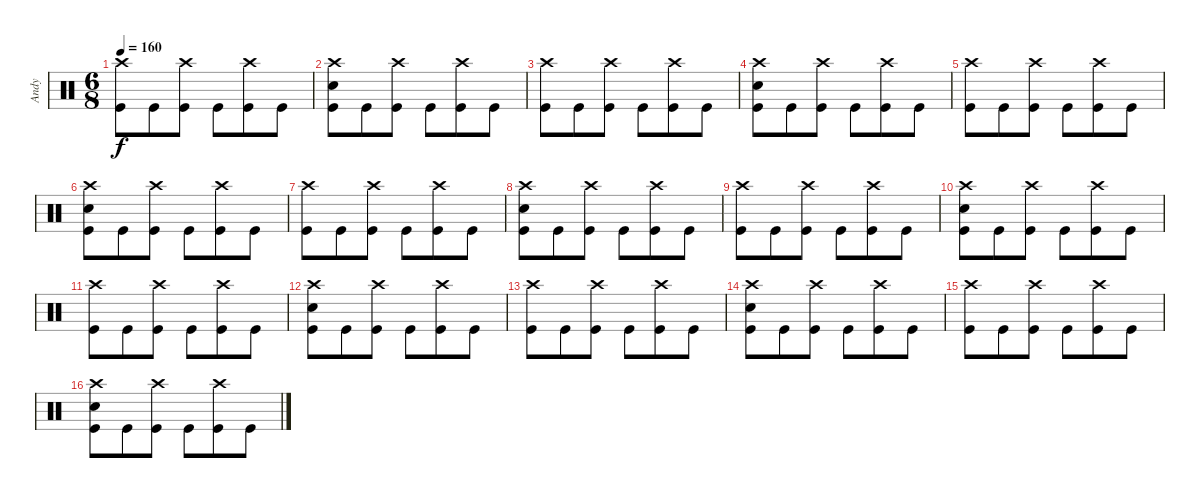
\track ("Andy" "Andy") {instrument percussion}
\staff {score}
\articulation defaults
\ts (6 8)
\tempo 160
\clef neutral
\ks c
("Kick (hit)" "Crash high (hit)").8{dy f} "Kick (hit)".8 ("Kick (hit)" "Crash high (hit)").8 "Kick (hit)".8 ("Kick (hit)" "Crash high (hit)").8 "Kick (hit)".8 |
("Kick (hit)" "Crash high (hit)" "Snare (hit) 2").8 "Kick (hit)".8 ("Kick (hit)" "Crash high (hit)").8 "Kick (hit)".8 ("Kick (hit)" "Crash high (hit)").8 "Kick (hit)".8 |
("Kick (hit)" "Crash high (hit)").8 "Kick (hit)".8 ("Kick (hit)" "Crash high (hit)").8 "Kick (hit)".8 ("Kick (hit)" "Crash high (hit)").8 "Kick (hit)".8 |
("Kick (hit)" "Crash high (hit)" "Snare (hit) 2").8 "Kick (hit)".8 ("Kick (hit)" "Crash high (hit)").8 "Kick (hit)".8 ("Kick (hit)" "Crash high (hit)").8 "Kick (hit)".8 |
("Kick (hit)" "Crash high (hit)").8 "Kick (hit)".8 ("Kick (hit)" "Crash high (hit)").8 "Kick (hit)".8 ("Kick (hit)" "Crash high (hit)").8 "Kick (hit)".8 |
("Kick (hit)" "Crash high (hit)" "Snare (hit) 2").8 "Kick (hit)".8 ("Kick (hit)" "Crash high (hit)").8 "Kick (hit)".8 ("Kick (hit)" "Crash high (hit)").8 "Kick (hit)".8 |
("Kick (hit)" "Crash high (hit)").8 "Kick (hit)".8 ("Kick (hit)" "Crash high (hit)").8 "Kick (hit)".8 ("Kick (hit)" "Crash high (hit)").8 "Kick (hit)".8 |
("Kick (hit)" "Crash high (hit)" "Snare (hit) 2").8 "Kick (hit)".8 ("Kick (hit)" "Crash high (hit)").8 "Kick (hit)".8 ("Kick (hit)" "Crash high (hit)").8 "Kick (hit)".8 |
("Kick (hit)" "Crash high (hit)").8 "Kick (hit)".8 ("Kick (hit)" "Crash high (hit)").8 "Kick (hit)".8 ("Kick (hit)" "Crash high (hit)").8 "Kick (hit)".8 |
("Kick (hit)" "Crash high (hit)" "Snare (hit) 2").8 "Kick (hit)".8 ("Kick (hit)" "Crash high (hit)").8 "Kick (hit)".8 ("Kick (hit)" "Crash high (hit)").8 "Kick (hit)".8 |
("Kick (hit)" "Crash high (hit)").8 "Kick (hit)".8 ("Kick (hit)" "Crash high (hit)").8 "Kick (hit)".8 ("Kick (hit)" "Crash high (hit)").8 "Kick (hit)".8 |
("Kick (hit)" "Crash high (hit)" "Snare (hit) 2").8 "Kick (hit)".8 ("Kick (hit)" "Crash high (hit)").8 "Kick (hit)".8 ("Kick (hit)" "Crash high (hit)").8 "Kick (hit)".8 |
("Kick (hit)" "Crash high (hit)").8 "Kick (hit)".8 ("Kick (hit)" "Crash high (hit)").8 "Kick (hit)".8 ("Kick (hit)" "Crash high (hit)").8 "Kick (hit)".8 |
("Kick (hit)" "Crash high (hit)" "Snare (hit) 2").8 "Kick (hit)".8 ("Kick (hit)" "Crash high (hit)").8 "Kick (hit)".8 ("Kick (hit)" "Crash high (hit)").8 "Kick (hit)".8 |
("Kick (hit)" "Crash high (hit)").8 "Kick (hit)".8 ("Kick (hit)" "Crash high (hit)").8 "Kick (hit)".8 ("Kick (hit)" "Crash high (hit)").8 "Kick (hit)".8 |
("Kick (hit)" "Crash high (hit)" "Snare (hit) 2").8 "Kick (hit)".8 ("Kick (hit)" "Crash high (hit)").8 "Kick (hit)".8 ("Kick (hit)" "Crash high (hit)").8 "Kick (hit)".8
